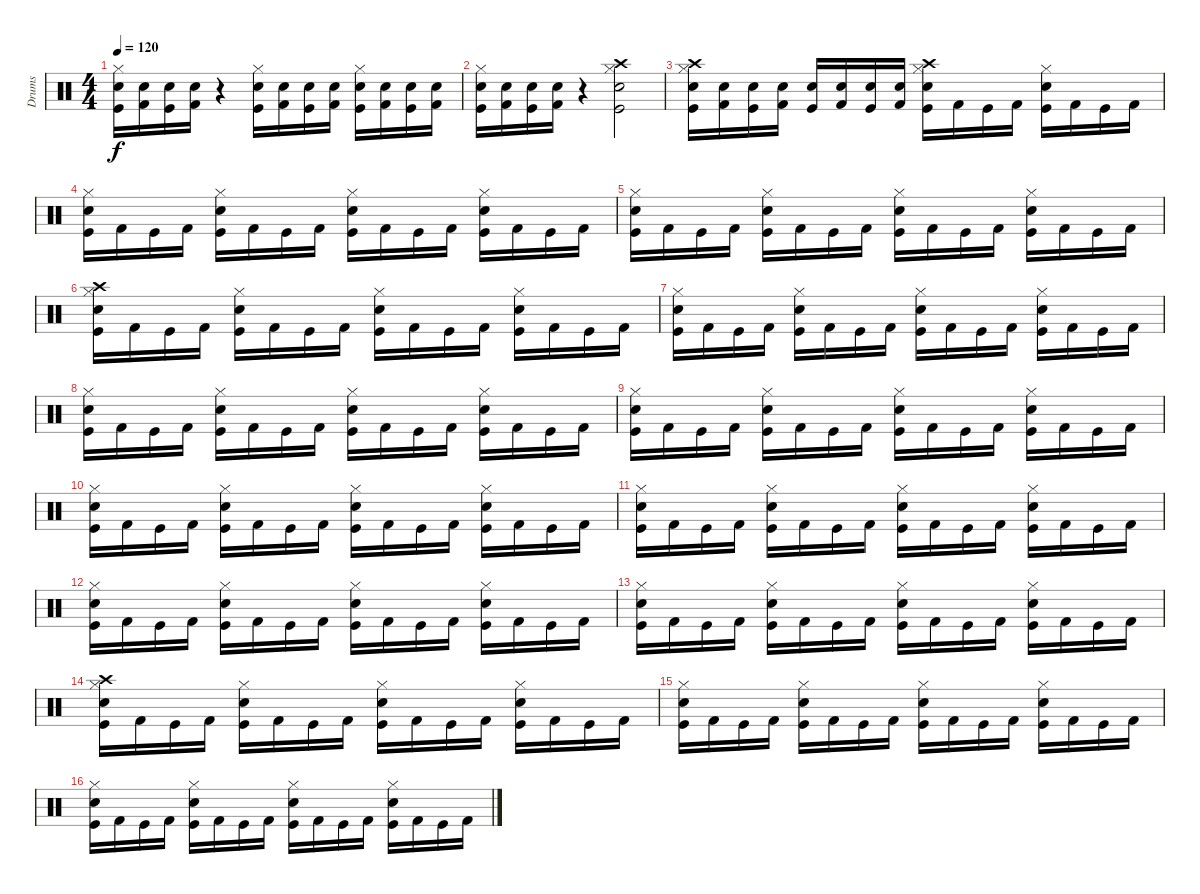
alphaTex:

\track ("Drums" "Drums") {instrument percussion}
\staff {score}
\articulation defaults
\ts (4 4)
\tempo 120
\clef neutral
\ks c
("Hi-Hat (closed)" "Snare (hit) 2" "Kick (hit)").16{dy f} ("Snare (hit) 2" "Kick (hit) 2").16 ("Snare (hit) 2" "Kick (hit)").16 ("Snare (hit) 2" "Kick (hit) 2").16 r.4 ("Hi-Hat (closed)" "Snare (hit) 2" "Kick (hit)").16 ("Snare (hit) 2" "Kick (hit) 2").16 ("Snare (hit) 2" "Kick (hit)").16 ("Snare (hit) 2" "Kick (hit) 2").16 ("Hi-Hat (closed)" "Electric Snare (hit)" "Kick (hit)").16 ("Electric Snare (hit)" "Kick (hit) 2").16 ("Electric Snare (hit)" "Kick (hit)").16 ("Electric Snare (hit)" "Kick (hit) 2").16 |
("Hi-Hat (closed)" "Snare (hit) 2" "Kick (hit)").16 ("Snare (hit) 2" "Kick (hit) 2").16 ("Snare (hit) 2" "Kick (hit)").16 ("Snare (hit) 2" "Kick (hit) 2").16 r.4 ("Hi-Hat (closed)" "Crash high (hit)" "Snare (hit) 2" "Kick (hit)").2 |
("Hi-Hat (closed)" "Crash high (hit)" "Snare (hit) 2" "Kick (hit)").16 ("Snare (hit) 2" "Kick (hit) 2").16 ("Snare (hit) 2" "Kick (hit)").16 ("Snare (hit) 2" "Kick (hit) 2").16 ("Electric Snare (hit)" "Kick (hit)").16 ("Electric Snare (hit)" "Kick (hit) 2").16 ("Electric Snare (hit)" "Kick (hit)").16 ("Electric Snare (hit)" "Kick (hit) 2").16 ("Hi-Hat (closed)" "Crash high (hit)" "Snare (hit) 2" "Kick (hit)").16 "Kick (hit) 2".16 "Kick (hit)".16 "Kick (hit) 2".16 ("Hi-Hat (closed)" "Snare (hit) 2" "Kick (hit)").16 "Kick (hit) 2".16 "Kick (hit)".16 "Kick (hit) 2".16 |
("Hi-Hat (closed)" "Snare (hit) 2" "Kick (hit)").16 "Kick (hit) 2".16 "Kick (hit)".16 "Kick (hit) 2".16 ("Hi-Hat (closed)" "Snare (hit) 2" "Kick (hit)").16 "Kick (hit) 2".16 "Kick (hit)".16 "Kick (hit) 2".16 ("Hi-Hat (closed)" "Snare (hit) 2" "Kick (hit)").16 "Kick (hit) 2".16 "Kick (hit)".16 "Kick (hit) 2".16 ("Hi-Hat (closed)" "Snare (hit) 2" "Kick (hit)").16 "Kick (hit) 2".16 "Kick (hit)".16 "Kick (hit) 2".16 |
("Hi-Hat (closed)" "Snare (hit) 2" "Kick (hit)").16 "Kick (hit) 2".16 "Kick (hit)".16 "Kick (hit) 2".16 ("Hi-Hat (closed)" "Snare (hit) 2" "Kick (hit)").16 "Kick (hit) 2".16 "Kick (hit)".16 "Kick (hit) 2".16 ("Hi-Hat (closed)" "Snare (hit) 2" "Kick (hit)").16 "Kick (hit) 2".16 "Kick (hit)".16 "Kick (hit) 2".16 ("Hi-Hat (closed)" "Snare (hit) 2" "Kick (hit)").16 "Kick (hit) 2".16 "Kick (hit)".16 "Kick (hit) 2".16 |
("Hi-Hat (closed)" "Crash high (hit)" "Snare (hit) 2" "Kick (hit)").16 "Kick (hit) 2".16 "Kick (hit)".16 "Kick (hit) 2".16 ("Hi-Hat (closed)" "Snare (hit) 2" "Kick (hit)").16 "Kick (hit) 2".16 "Kick (hit)".16 "Kick (hit) 2".16 ("Hi-Hat (closed)" "Snare (hit) 2" "Kick (hit)").16 "Kick (hit) 2".16 "Kick (hit)".16 "Kick (hit) 2".16 ("Hi-Hat (closed)" "Snare (hit) 2" "Kick (hit)").16 "Kick (hit) 2".16 "Kick (hit)".16 "Kick (hit) 2".16 |
("Hi-Hat (closed)" "Snare (hit) 2" "Kick (hit)").16 "Kick (hit) 2".16 "Kick (hit)".16 "Kick (hit) 2".16 ("Hi-Hat (closed)" "Snare (hit) 2" "Kick (hit)").16 "Kick (hit) 2".16 "Kick (hit)".16 "Kick (hit) 2".16 ("Hi-Hat (closed)" "Snare (hit) 2" "Kick (hit)").16 "Kick (hit) 2".16 "Kick (hit)".16 "Kick (hit) 2".16 ("Hi-Hat (closed)" "Snare (hit) 2" "Kick (hit)").16 "Kick (hit) 2".16 "Kick (hit)".16 "Kick (hit) 2".16 |
("Hi-Hat (closed)" "Snare (hit) 2" "Kick (hit)").16 "Kick (hit) 2".16 "Kick (hit)".16 "Kick (hit) 2".16 ("Hi-Hat (closed)" "Snare (hit) 2" "Kick (hit)").16 "Kick (hit) 2".16 "Kick (hit)".16 "Kick (hit) 2".16 ("Hi-Hat (closed)" "Snare (hit) 2" "Kick (hit)").16 "Kick (hit) 2".16 "Kick (hit)".16 "Kick (hit) 2".16 ("Hi-Hat (closed)" "Snare (hit) 2" "Kick (hit)").16 "Kick (hit) 2".16 "Kick (hit)".16 "Kick (hit) 2".16 |
("Hi-Hat (closed)" "Snare (hit) 2" "Kick (hit)").16 "Kick (hit) 2".16 "Kick (hit)".16 "Kick (hit) 2".16 ("Hi-Hat (closed)" "Snare (hit) 2" "Kick (hit)").16 "Kick (hit) 2".16 "Kick (hit)".16 "Kick (hit) 2".16 ("Hi-Hat (closed)" "Snare (hit) 2" "Kick (hit)").16 "Kick (hit) 2".16 "Kick (hit)".16 "Kick (hit) 2".16 ("Hi-Hat (closed)" "Snare (hit) 2" "Kick (hit)").16 "Kick (hit) 2".16 "Kick (hit)".16 "Kick (hit) 2".16 |
("Hi-Hat (closed)" "Snare (hit) 2" "Kick (hit)").16 "Kick (hit) 2".16 "Kick (hit)".16 "Kick (hit) 2".16 ("Hi-Hat (closed)" "Snare (hit) 2" "Kick (hit)").16 "Kick (hit) 2".16 "Kick (hit)".16 "Kick (hit) 2".16 ("Hi-Hat (closed)" "Snare (hit) 2" "Kick (hit)").16 "Kick (hit) 2".16 "Kick (hit)".16 "Kick (hit) 2".16 ("Hi-Hat (closed)" "Snare (hit) 2" "Kick (hit)").16 "Kick (hit) 2".16 "Kick (hit)".16 "Kick (hit) 2".16 |
("Hi-Hat (closed)" "Snare (hit) 2" "Kick (hit)").16 "Kick (hit) 2".16 "Kick (hit)".16 "Kick (hit) 2".16 ("Hi-Hat (closed)" "Snare (hit) 2" "Kick (hit)").16 "Kick (hit) 2".16 "Kick (hit)".16 "Kick (hit) 2".16 ("Hi-Hat (closed)" "Snare (hit) 2" "Kick (hit)").16 "Kick (hit) 2".16 "Kick (hit)".16 "Kick (hit) 2".16 ("Hi-Hat (closed)" "Snare (hit) 2" "Kick (hit)").16 "Kick (hit) 2".16 "Kick (hit)".16 "Kick (hit) 2".16 |
("Hi-Hat (closed)" "Snare (hit) 2" "Kick (hit)").16 "Kick (hit) 2".16 "Kick (hit)".16 "Kick (hit) 2".16 ("Hi-Hat (closed)" "Snare (hit) 2" "Kick (hit)").16 "Kick (hit) 2".16 "Kick (hit)".16 "Kick (hit) 2".16 ("Hi-Hat (closed)" "Snare (hit) 2" "Kick (hit)").16 "Kick (hit) 2".16 "Kick (hit)".16 "Kick (hit) 2".16 ("Hi-Hat (closed)" "Snare (hit) 2" "Kick (hit)").16 "Kick (hit) 2".16 "Kick (hit)".16 "Kick (hit) 2".16 |
("Hi-Hat (closed)" "Snare (hit) 2" "Kick (hit)").16 "Kick (hit) 2".16 "Kick (hit)".16 "Kick (hit) 2".16 ("Hi-Hat (closed)" "Snare (hit) 2" "Kick (hit)").16 "Kick (hit) 2".16 "Kick (hit)".16 "Kick (hit) 2".16 ("Hi-Hat (closed)" "Snare (hit) 2" "Kick (hit)").16 "Kick (hit) 2".16 "Kick (hit)".16 "Kick (hit) 2".16 ("Hi-Hat (closed)" "Snare (hit) 2" "Kick (hit)").16 "Kick (hit) 2".16 "Kick (hit)".16 "Kick (hit) 2".16 |
("Hi-Hat (closed)" "Crash high (hit)" "Snare (hit) 2" "Kick (hit)").16 "Kick (hit) 2".16 "Kick (hit)".16 "Kick (hit) 2".16 ("Hi-Hat (closed)" "Snare (hit) 2" "Kick (hit)").16 "Kick (hit) 2".16 "Kick (hit)".16 "Kick (hit) 2".16 ("Hi-Hat (closed)" "Snare (hit) 2" "Kick (hit)").16 "Kick (hit) 2".16 "Kick (hit)".16 "Kick (hit) 2".16 ("Hi-Hat (closed)" "Snare (hit) 2" "Kick (hit)").16 "Kick (hit) 2".16 "Kick (hit)".16 "Kick (hit) 2".16 |
("Hi-Hat (closed)" "Snare (hit) 2" "Kick (hit)").16 "Kick (hit) 2".16 "Kick (hit)".16 "Kick (hit) 2".16 ("Hi-Hat (closed)" "Snare (hit) 2" "Kick (hit)").16 "Kick (hit) 2".16 "Kick (hit)".16 "Kick (hit) 2".16 ("Hi-Hat (closed)" "Snare (hit) 2" "Kick (hit)").16 "Kick (hit) 2".16 "Kick (hit)".16 "Kick (hit) 2".16 ("Hi-Hat (closed)" "Snare (hit) 2" "Kick (hit)").16 "Kick (hit) 2".16 "Kick (hit)".16 "Kick (hit) 2".16 |
("Hi-Hat (closed)" "Snare (hit) 2" "Kick (hit)").16 "Kick (hit) 2".16 "Kick (hit)".16 "Kick (hit) 2".16 ("Hi-Hat (closed)" "Snare (hit) 2" "Kick (hit)").16 "Kick (hit) 2".16 "Kick (hit)".16 "Kick (hit) 2".16 ("Hi-Hat (closed)" "Snare (hit) 2" "Kick (hit)").16 "Kick (hit) 2".16 "Kick (hit)".16 "Kick (hit) 2".16 ("Hi-Hat (closed)" "Snare (hit) 2" "Kick (hit)").16 "Kick (hit) 2".16 "Kick (hit)".16 "Kick (hit) 2".16
